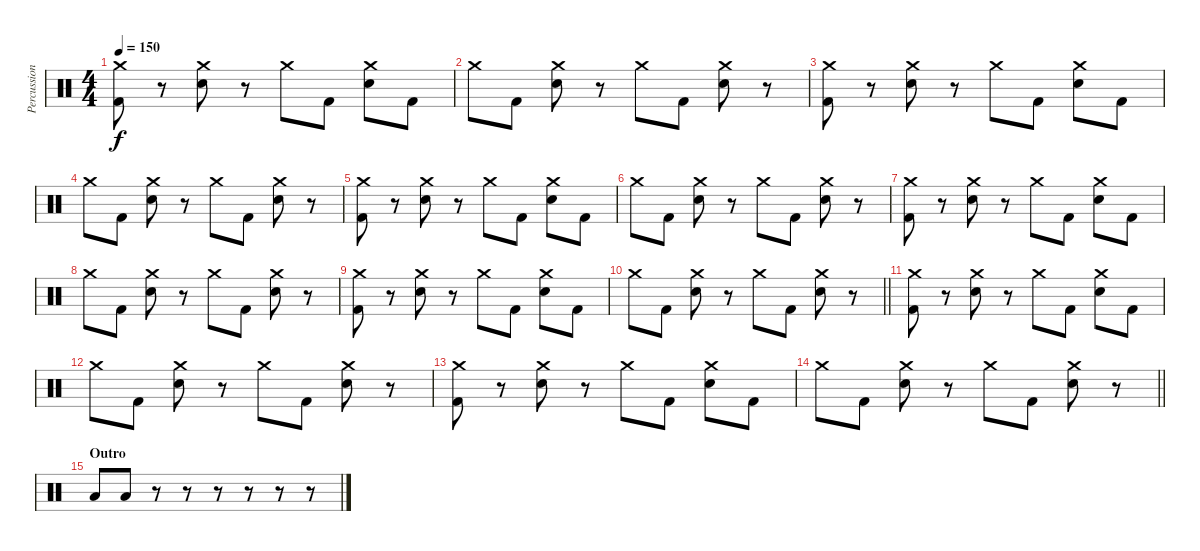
\track ("Percussion" "Percussion") {instrument percussion}
\staff {score}
\articulation defaults
\ts (4 4)
\tempo 150
\clef neutral
\ks c
("Crash medium (hit)" "Kick (hit) 2").8{dy f} r.8 ("Crash medium (hit)" "Electric Snare (hit)").8 r.8 "Crash medium (hit)".8 "Kick (hit) 2".8 ("Crash medium (hit)" "Electric Snare (hit)").8 "Kick (hit) 2".8 |
"Crash medium (hit)".8 "Kick (hit) 2".8 ("Crash medium (hit)" "Electric Snare (hit)").8 r.8 "Crash medium (hit)".8 "Kick (hit) 2".8 ("Crash medium (hit)" "Electric Snare (hit)").8 r.8 |
("Crash medium (hit)" "Kick (hit) 2").8 r.8 ("Crash medium (hit)" "Electric Snare (hit)").8 r.8 "Crash medium (hit)".8 "Kick (hit) 2".8 ("Crash medium (hit)" "Electric Snare (hit)").8 "Kick (hit) 2".8 |
"Crash medium (hit)".8 "Kick (hit) 2".8 ("Crash medium (hit)" "Electric Snare (hit)").8 r.8 "Crash medium (hit)".8 "Kick (hit) 2".8 ("Crash medium (hit)" "Electric Snare (hit)").8 r.8 |
("Crash medium (hit)" "Kick (hit) 2").8 r.8 ("Crash medium (hit)" "Electric Snare (hit)").8 r.8 "Crash medium (hit)".8 "Kick (hit) 2".8 ("Crash medium (hit)" "Electric Snare (hit)").8 "Kick (hit) 2".8 |
"Crash medium (hit)".8 "Kick (hit) 2".8 ("Crash medium (hit)" "Electric Snare (hit)").8 r.8 "Crash medium (hit)".8 "Kick (hit) 2".8 ("Crash medium (hit)" "Electric Snare (hit)").8 r.8 |
("Crash medium (hit)" "Kick (hit) 2").8 r.8 ("Crash medium (hit)" "Electric Snare (hit)").8 r.8 "Crash medium (hit)".8 "Kick (hit) 2".8 ("Crash medium (hit)" "Electric Snare (hit)").8 "Kick (hit) 2".8 |
"Crash medium (hit)".8 "Kick (hit) 2".8 ("Crash medium (hit)" "Electric Snare (hit)").8 r.8 "Crash medium (hit)".8 "Kick (hit) 2".8 ("Crash medium (hit)" "Electric Snare (hit)").8 r.8 |
("Crash medium (hit)" "Kick (hit) 2").8 r.8 ("Crash medium (hit)" "Electric Snare (hit)").8 r.8 "Crash medium (hit)".8 "Kick (hit) 2".8 ("Crash medium (hit)" "Electric Snare (hit)").8 "Kick (hit) 2".8 |
\barLineRight lightlight "Crash medium (hit)".8 "Kick (hit) 2".8
("Crash medium (hit)" "Electric Snare (hit)").8 r.8 "Crash medium (hit)".8 "Kick (hit) 2".8 ("Crash medium (hit)" "Electric Snare (hit)").8 r.8 |
("Crash medium (hit)" "Kick (hit) 2").8 r.8 ("Crash medium (hit)" "Electric Snare (hit)").8 r.8 "Crash medium (hit)".8 "Kick (hit) 2".8 ("Crash medium (hit)" "Electric Snare (hit)").8 "Kick (hit) 2".8 |
"Crash medium (hit)".8 "Kick (hit) 2".8 ("Crash medium (hit)" "Electric Snare (hit)").8 r.8 "Crash medium (hit)".8 "Kick (hit) 2".8 ("Crash medium (hit)" "Electric Snare (hit)").8 r.8 |
("Crash medium (hit)" "Kick (hit) 2").8 r.8 ("Crash medium (hit)" "Electric Snare (hit)").8 r.8 "Crash medium (hit)".8 "Kick (hit) 2".8 ("Crash medium (hit)" "Electric Snare (hit)").8 "Kick (hit) 2".8 |
\barLineRight lightlight "Crash medium (hit)".8 "Kick (hit) 2".8
("Crash medium (hit)" "Electric Snare (hit)").8 r.8 "Crash medium (hit)".8 "Kick (hit) 2".8 ("Crash medium (hit)" "Electric Snare (hit)").8 r.8 |
\section ("" "Outro ")
"Low Tom (hit)".8 "Low Tom (hit)".8 r.8 r.8 r.8 r.8 r.8 r.8
